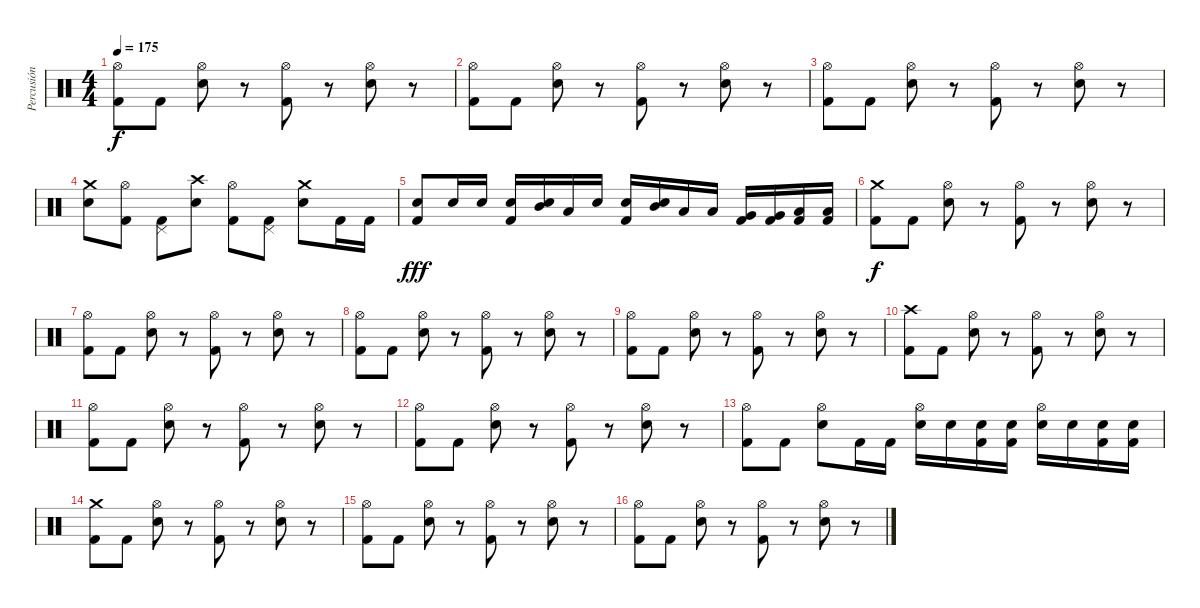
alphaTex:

\track ("Percusión" "Percusión") {instrument percussion}
\staff {score}
\articulation defaults
\ts (4 4)
\tempo 175
\clef neutral
\ks c
("Hi-Hat (open)" "Kick (hit) 2").8{dy f} "Kick (hit) 2".8 ("Hi-Hat (open)" "Electric Snare (hit)").8 r.8 ("Hi-Hat (open)" "Kick (hit) 2").8 r.8 ("Hi-Hat (open)" "Electric Snare (hit)").8 r.8 |
("Hi-Hat (open)" "Kick (hit) 2").8 "Kick (hit) 2".8 ("Hi-Hat (open)" "Electric Snare (hit)").8 r.8 ("Hi-Hat (open)" "Kick (hit) 2").8 r.8 ("Hi-Hat (open)" "Electric Snare (hit)").8 r.8 |
("Hi-Hat (open)" "Kick (hit) 2").8 "Kick (hit) 2".8 ("Hi-Hat (open)" "Electric Snare (hit)").8 r.8 ("Hi-Hat (open)" "Kick (hit) 2").8 r.8 ("Hi-Hat (open)" "Electric Snare (hit)").8 r.8 |
("Crash medium (hit)" "Electric Snare (hit)").8 ("Hi-Hat (open)" "Kick (hit) 2").8 ("Pedal Hi-Hat (hit)" "Kick (hit) 2").8 ("Crash high (hit)" "Electric Snare (hit)").8 ("Hi-Hat (open)" "Kick (hit) 2").8 ("Pedal Hi-Hat (hit)" "Kick (hit) 2").8 ("Crash medium (hit)" "Electric Snare (hit)").8 "Kick (hit) 2".16 "Kick (hit) 2".16 |
("Electric Snare (hit)" "Kick (hit) 2").8{dy fff} "Electric Snare (hit)".16 "Electric Snare (hit)".16 ("Electric Snare (hit)" "Kick (hit) 2").16 ("Electric Snare (hit)" "Mid Tom (hit)").16 "Low Tom (hit)".16 "Electric Snare (hit)".16 ("Electric Snare (hit)" "Kick (hit) 2").16 ("Electric Snare (hit)" "Mid Tom (hit)").16 "Low Tom (hit)".16 "Low Tom (hit)".16 ("Very Low Tom (hit)" "Kick (hit) 2").16 ("Very Low Tom (hit)" "Kick (hit) 2").16 ("Low Floor Tom (hit)" "Kick (hit) 2").16 ("Low Floor Tom (hit)" "Kick (hit) 2").16 |
("Crash medium (hit)" "Kick (hit) 2").8{dy f} "Kick (hit) 2".8 ("Hi-Hat (open)" "Electric Snare (hit)").8 r.8 ("Hi-Hat (open)" "Kick (hit) 2").8 r.8 ("Hi-Hat (open)" "Electric Snare (hit)").8 r.8 |
("Hi-Hat (open)" "Kick (hit) 2").8 "Kick (hit) 2".8 ("Hi-Hat (open)" "Electric Snare (hit)").8 r.8 ("Hi-Hat (open)" "Kick (hit) 2").8 r.8 ("Hi-Hat (open)" "Electric Snare (hit)").8 r.8 |
("Hi-Hat (open)" "Kick (hit) 2").8 "Kick (hit) 2".8 ("Hi-Hat (open)" "Electric Snare (hit)").8 r.8 ("Hi-Hat (open)" "Kick (hit) 2").8 r.8 ("Hi-Hat (open)" "Electric Snare (hit)").8 r.8 |
("Hi-Hat (open)" "Kick (hit) 2").8 "Kick (hit) 2".8 ("Hi-Hat (open)" "Electric Snare (hit)").8 r.8 ("Hi-Hat (open)" "Kick (hit) 2").8 r.8 ("Hi-Hat (open)" "Electric Snare (hit)").8 r.8 |
("Crash high (hit)" "Kick (hit) 2").8 "Kick (hit) 2".8 ("Hi-Hat (open)" "Electric Snare (hit)").8 r.8 ("Hi-Hat (open)" "Kick (hit) 2").8 r.8 ("Hi-Hat (open)" "Electric Snare (hit)").8 r.8 |
("Hi-Hat (open)" "Kick (hit) 2").8 "Kick (hit) 2".8 ("Hi-Hat (open)" "Electric Snare (hit)").8 r.8 ("Hi-Hat (open)" "Kick (hit) 2").8 r.8 ("Hi-Hat (open)" "Electric Snare (hit)").8 r.8 |
("Hi-Hat (open)" "Kick (hit) 2").8 "Kick (hit) 2".8 ("Hi-Hat (open)" "Electric Snare (hit)").8 r.8 ("Hi-Hat (open)" "Kick (hit) 2").8 r.8 ("Hi-Hat (open)" "Electric Snare (hit)").8 r.8 |
("Hi-Hat (open)" "Kick (hit) 2").8 "Kick (hit) 2".8 ("Hi-Hat (open)" "Electric Snare (hit)").8 "Kick (hit) 2".16 "Kick (hit) 2".16 ("Hi-Hat (open)" "Electric Snare (hit)").16 "Electric Snare (hit)".16 ("Electric Snare (hit)" "Kick (hit) 2").16 ("Electric Snare (hit)" "Kick (hit) 2").16 ("Hi-Hat (open)" "Electric Snare (hit)").16 "Electric Snare (hit)".16 ("Electric Snare (hit)" "Kick (hit) 2").16 ("Electric Snare (hit)" "Kick (hit) 2").16 |
("Crash medium (hit)" "Kick (hit) 2").8 "Kick (hit) 2".8 ("Hi-Hat (open)" "Electric Snare (hit)").8 r.8 ("Hi-Hat (open)" "Kick (hit) 2").8 r.8 ("Hi-Hat (open)" "Electric Snare (hit)").8 r.8 |
("Hi-Hat (open)" "Kick (hit) 2").8 "Kick (hit) 2".8 ("Hi-Hat (open)" "Electric Snare (hit)").8 r.8 ("Hi-Hat (open)" "Kick (hit) 2").8 r.8 ("Hi-Hat (open)" "Electric Snare (hit)").8 r.8 |
("Hi-Hat (open)" "Kick (hit) 2").8 "Kick (hit) 2".8 ("Hi-Hat (open)" "Electric Snare (hit)").8 r.8 ("Hi-Hat (open)" "Kick (hit) 2").8 r.8 ("Hi-Hat (open)" "Electric Snare (hit)").8 r.8
